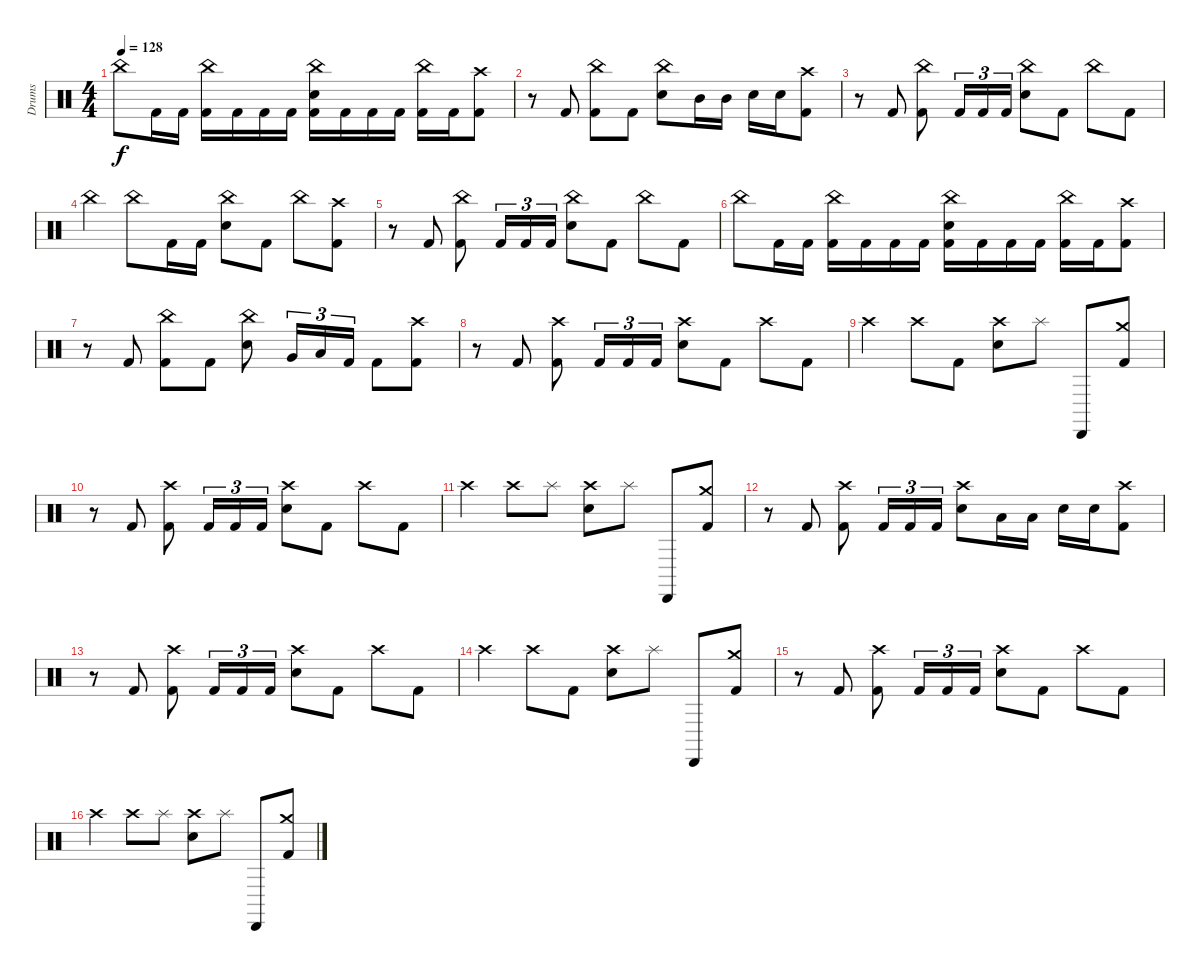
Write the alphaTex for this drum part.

\track ("Drums" "Drums") {instrument percussion}
\staff {score}
\articulation defaults
\ts (4 4)
\tempo 128
\clef neutral
\ks c "China (hit)".8{dy f} "Kick (hit) 2".16 "Kick (hit) 2".16
("China (hit)" "Kick (hit) 2").16 "Kick (hit) 2".16 "Kick (hit) 2".16 "Kick (hit) 2".16 ("China (hit)" "Snare (hit) 2" "Kick (hit) 2").16 "Kick (hit) 2".16 "Kick (hit) 2".16 "Kick (hit) 2".16 ("China (hit)" "Kick (hit) 2").16 "Kick (hit) 2".16 ("Crash high (hit)" "Kick (hit) 2").8 |
r.8 "Kick (hit) 2".8 ("China (hit)" "Kick (hit) 2").8 "Kick (hit) 2".8 ("China (hit)" "Snare (hit) 2").8 "Mid Tom (hit)".16 "Mid Tom (hit)".16 "Snare (hit) 2".16 "Snare (hit) 2".16 ("Crash high (hit)" "Kick (hit) 2").8 |
r.8 "Kick (hit) 2".8 ("China (hit)" "Kick (hit) 2").8 "Kick (hit) 2".16{tu (3 2)} "Kick (hit) 2".16{tu (3 2)} "Kick (hit) 2".16{tu (3 2)} ("China (hit)" "Snare (hit) 2").8 "Kick (hit) 2".8 "China (hit)".8 "Kick (hit) 2".8 |
"China (hit)".4 "China (hit)".8 "Kick (hit) 2".16 "Kick (hit) 2".16 ("China (hit)" "Snare (hit) 2").8 "Kick (hit) 2".8 "China (hit)".8 ("Crash high (hit)" "Kick (hit) 2").8 |
r.8 "Kick (hit) 2".8 ("China (hit)" "Kick (hit) 2").8 "Kick (hit) 2".16{tu (3 2)} "Kick (hit) 2".16{tu (3 2)} "Kick (hit) 2".16{tu (3 2)} ("China (hit)" "Snare (hit) 2").8 "Kick (hit) 2".8 "China (hit)".8 "Kick (hit) 2".8 |
"China (hit)".8 "Kick (hit) 2".16 "Kick (hit) 2".16 ("China (hit)" "Kick (hit) 2").16 "Kick (hit) 2".16 "Kick (hit) 2".16 "Kick (hit) 2".16 ("China (hit)" "Snare (hit) 2" "Kick (hit) 2").16 "Kick (hit) 2".16 "Kick (hit) 2".16 "Kick (hit) 2".16 ("China (hit)" "Kick (hit) 2").16 "Kick (hit) 2".16 ("Crash high (hit)" "Kick (hit) 2").8 |
r.8 "Kick (hit) 2".8 ("China (hit)" "Kick (hit) 2").8 "Kick (hit) 2".8 ("China (hit)" "Snare (hit) 2").8 "Very Low Tom (hit)".16{tu (3 2)} "Low Tom (hit)".16{tu (3 2)} "Kick (hit) 2".16{tu (3 2)} "Kick (hit) 2".8 ("Crash high (hit)" "Kick (hit) 2").8 |
r.8 "Kick (hit) 2".8 ("Crash high (hit)" "Kick (hit) 2").8 "Kick (hit) 2".16{tu (3 2)} "Kick (hit) 2".16{tu (3 2)} "Kick (hit) 2".16{tu (3 2)} ("Crash high (hit)" "Snare (hit) 2").8 "Kick (hit) 2".8 "Crash high (hit)".8 "Kick (hit) 2".8 |
"Crash high (hit)".4 "Crash high (hit)".8 "Kick (hit) 2".8 ("Crash high (hit)" "Snare (hit) 2").8 "Splash (hit)".8 "Cabasa (hit)".8 ("Crash medium (hit)" "Kick (hit) 2").8 |
r.8 "Kick (hit) 2".8 ("Crash high (hit)" "Kick (hit) 2").8 "Kick (hit) 2".16{tu (3 2)} "Kick (hit) 2".16{tu (3 2)} "Kick (hit) 2".16{tu (3 2)} ("Crash high (hit)" "Snare (hit) 2").8 "Kick (hit) 2".8 "Crash high (hit)".8 "Kick (hit) 2".8 |
"Crash high (hit)".4 "Crash high (hit)".8 "Splash (hit)".8 ("Crash high (hit)" "Snare (hit) 2").8 "Splash (hit)".8 "Cabasa (hit)".8 ("Crash medium (hit)" "Kick (hit) 2").8 |
r.8 "Kick (hit) 2".8 ("Crash high (hit)" "Kick (hit) 2").8 "Kick (hit) 2".16{tu (3 2)} "Kick (hit) 2".16{tu (3 2)} "Kick (hit) 2".16{tu (3 2)} ("Crash high (hit)" "Snare (hit) 2").8 "Low Tom (hit)".16 "Low Tom (hit)".16 "Snare (hit) 2".16 "Snare (hit) 2".16 ("Crash high (hit)" "Kick (hit) 2").8 |
r.8 "Kick (hit) 2".8 ("Crash high (hit)" "Kick (hit) 2").8 "Kick (hit) 2".16{tu (3 2)} "Kick (hit) 2".16{tu (3 2)} "Kick (hit) 2".16{tu (3 2)} ("Crash high (hit)" "Snare (hit) 2").8 "Kick (hit) 2".8 "Crash high (hit)".8 "Kick (hit) 2".8 |
"Crash high (hit)".4 "Crash high (hit)".8 "Kick (hit) 2".8 ("Crash high (hit)" "Snare (hit) 2").8 "Splash (hit)".8 "Cabasa (hit)".8 ("Crash medium (hit)" "Kick (hit) 2").8 |
r.8 "Kick (hit) 2".8 ("Crash high (hit)" "Kick (hit) 2").8 "Kick (hit) 2".16{tu (3 2)} "Kick (hit) 2".16{tu (3 2)} "Kick (hit) 2".16{tu (3 2)} ("Crash high (hit)" "Snare (hit) 2").8 "Kick (hit) 2".8 "Crash high (hit)".8 "Kick (hit) 2".8 |
"Crash high (hit)".4 "Crash high (hit)".8 "Splash (hit)".8 ("Crash high (hit)" "Snare (hit) 2").8 "Splash (hit)".8 "Cabasa (hit)".8 ("Crash medium (hit)" "Kick (hit) 2").8
